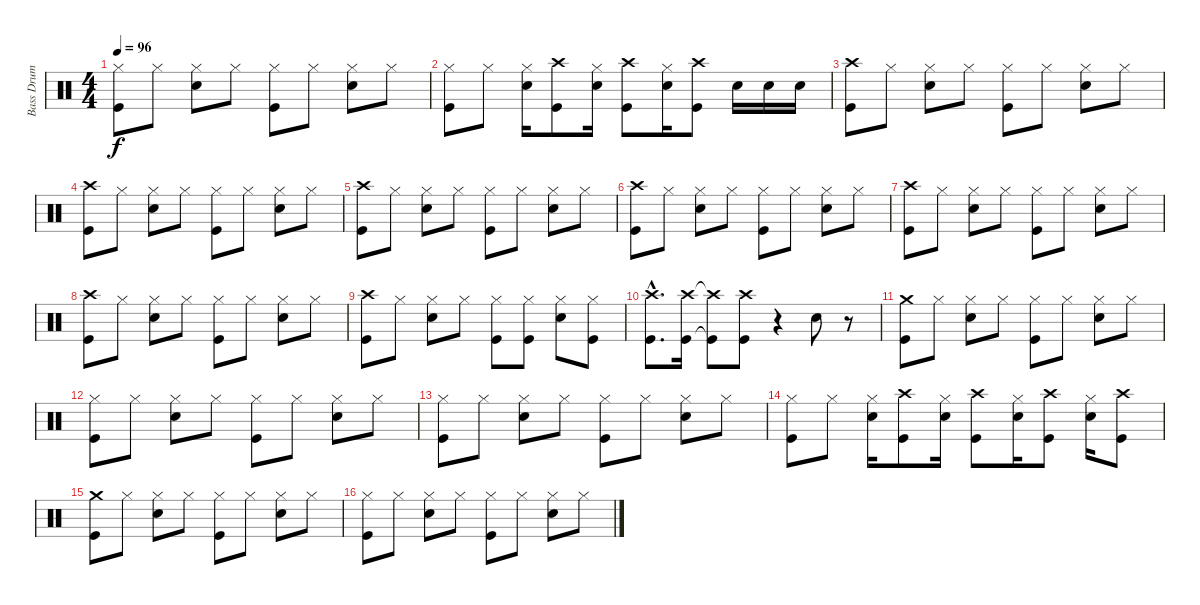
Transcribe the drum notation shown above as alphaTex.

\track ("Bass Drum" "Bass Drum") {instrument percussion}
\staff {score}
\articulation defaults
\ts (4 4)
\tempo 96
\clef neutral
\ks c
("Hi-Hat (closed)" "Kick (hit)").8{dy f} "Hi-Hat (closed)".8 ("Hi-Hat (closed)" "Electric Snare (hit)").8 "Hi-Hat (closed)".8 ("Hi-Hat (closed)" "Kick (hit)").8 "Hi-Hat (closed)".8 ("Hi-Hat (closed)" "Electric Snare (hit)").8 "Hi-Hat (closed)".8 |
("Hi-Hat (closed)" "Kick (hit)").8 "Hi-Hat (closed)".8 ("Hi-Hat (closed)" "Electric Snare (hit)").16 ("Crash high (hit)" "Kick (hit)").8 ("Hi-Hat (closed)" "Electric Snare (hit)").16 ("Crash high (hit)" "Kick (hit)").8 ("Hi-Hat (closed)" "Electric Snare (hit)").16 ("Crash high (hit)" "Kick (hit)").8 "Electric Snare (hit)".16 "Electric Snare (hit)".16 "Electric Snare (hit)".16 |
("Crash high (hit)" "Kick (hit)").8 "Hi-Hat (closed)".8 ("Hi-Hat (closed)" "Electric Snare (hit)").8 "Hi-Hat (closed)".8 ("Hi-Hat (closed)" "Kick (hit)").8 "Hi-Hat (closed)".8 ("Hi-Hat (closed)" "Electric Snare (hit)").8 "Hi-Hat (closed)".8 |
("Crash high (hit)" "Kick (hit)").8 "Hi-Hat (closed)".8 ("Hi-Hat (closed)" "Electric Snare (hit)").8 "Hi-Hat (closed)".8 ("Hi-Hat (closed)" "Kick (hit)").8 "Hi-Hat (closed)".8 ("Hi-Hat (closed)" "Electric Snare (hit)").8 "Hi-Hat (closed)".8 |
("Crash high (hit)" "Kick (hit)").8 "Hi-Hat (closed)".8 ("Hi-Hat (closed)" "Electric Snare (hit)").8 "Hi-Hat (closed)".8 ("Hi-Hat (closed)" "Kick (hit)").8 "Hi-Hat (closed)".8 ("Hi-Hat (closed)" "Electric Snare (hit)").8 "Hi-Hat (closed)".8 |
("Crash high (hit)" "Kick (hit)").8 "Hi-Hat (closed)".8 ("Hi-Hat (closed)" "Electric Snare (hit)").8 "Hi-Hat (closed)".8 ("Hi-Hat (closed)" "Kick (hit)").8 "Hi-Hat (closed)".8 ("Hi-Hat (closed)" "Electric Snare (hit)").8 "Hi-Hat (closed)".8 |
("Crash high (hit)" "Kick (hit)").8 "Hi-Hat (closed)".8 ("Hi-Hat (closed)" "Electric Snare (hit)").8 "Hi-Hat (closed)".8 ("Hi-Hat (closed)" "Kick (hit)").8 "Hi-Hat (closed)".8 ("Hi-Hat (closed)" "Electric Snare (hit)").8 "Hi-Hat (closed)".8 |
("Crash high (hit)" "Kick (hit)").8 "Hi-Hat (closed)".8 ("Hi-Hat (closed)" "Electric Snare (hit)").8 "Hi-Hat (closed)".8 ("Hi-Hat (closed)" "Kick (hit)").8 "Hi-Hat (closed)".8 ("Hi-Hat (closed)" "Electric Snare (hit)").8 "Hi-Hat (closed)".8 |
("Crash high (hit)" "Kick (hit)").8 "Hi-Hat (closed)".8 ("Hi-Hat (closed)" "Electric Snare (hit)").8 "Hi-Hat (closed)".8 ("Hi-Hat (closed)" "Kick (hit)").8 ("Hi-Hat (closed)" "Kick (hit)").8 ("Hi-Hat (closed)" "Electric Snare (hit)").8 ("Hi-Hat (closed)" "Kick (hit)").8 |
("Crash high (hit)"{hac} "Kick (hit)"{hac}).8{d} ("Crash high (hit)" "Kick (hit)").16 ("Crash high (hit)"{t} "Kick (hit)"{t}).8 ("Crash high (hit)" "Kick (hit)").8 r.4 "Electric Snare (hit)".8 r.8 |
("Crash medium (hit)" "Kick (hit)").8 "Hi-Hat (closed)".8 ("Hi-Hat (closed)" "Electric Snare (hit)").8 "Hi-Hat (closed)".8 ("Hi-Hat (closed)" "Kick (hit)").8 "Hi-Hat (closed)".8 ("Hi-Hat (closed)" "Electric Snare (hit)").8 "Hi-Hat (closed)".8 |
("Hi-Hat (closed)" "Kick (hit)").8 "Hi-Hat (closed)".8 ("Hi-Hat (closed)" "Electric Snare (hit)").8 "Hi-Hat (closed)".8 ("Hi-Hat (closed)" "Kick (hit)").8 "Hi-Hat (closed)".8 ("Hi-Hat (closed)" "Electric Snare (hit)").8 "Hi-Hat (closed)".8 |
("Hi-Hat (closed)" "Kick (hit)").8 "Hi-Hat (closed)".8 ("Hi-Hat (closed)" "Electric Snare (hit)").8 "Hi-Hat (closed)".8 ("Hi-Hat (closed)" "Kick (hit)").8 "Hi-Hat (closed)".8 ("Hi-Hat (closed)" "Electric Snare (hit)").8 "Hi-Hat (closed)".8 |
("Hi-Hat (closed)" "Kick (hit)").8 "Hi-Hat (closed)".8 ("Hi-Hat (closed)" "Electric Snare (hit)").16 ("Crash high (hit)" "Kick (hit)").8 ("Hi-Hat (closed)" "Electric Snare (hit)").16 ("Crash high (hit)" "Kick (hit)").8 ("Hi-Hat (closed)" "Electric Snare (hit)").16 ("Crash high (hit)" "Kick (hit)").8 ("Hi-Hat (closed)" "Electric Snare (hit)").16 ("Crash high (hit)" "Kick (hit)").8 |
("Crash medium (hit)" "Kick (hit)").8 "Hi-Hat (closed)".8 ("Hi-Hat (closed)" "Electric Snare (hit)").8 "Hi-Hat (closed)".8 ("Hi-Hat (closed)" "Kick (hit)").8 "Hi-Hat (closed)".8 ("Hi-Hat (closed)" "Electric Snare (hit)").8 "Hi-Hat (closed)".8 |
("Hi-Hat (closed)" "Kick (hit)").8 "Hi-Hat (closed)".8 ("Hi-Hat (closed)" "Electric Snare (hit)").8 "Hi-Hat (closed)".8 ("Hi-Hat (closed)" "Kick (hit)").8 "Hi-Hat (closed)".8 ("Hi-Hat (closed)" "Electric Snare (hit)").8 "Hi-Hat (closed)".8
